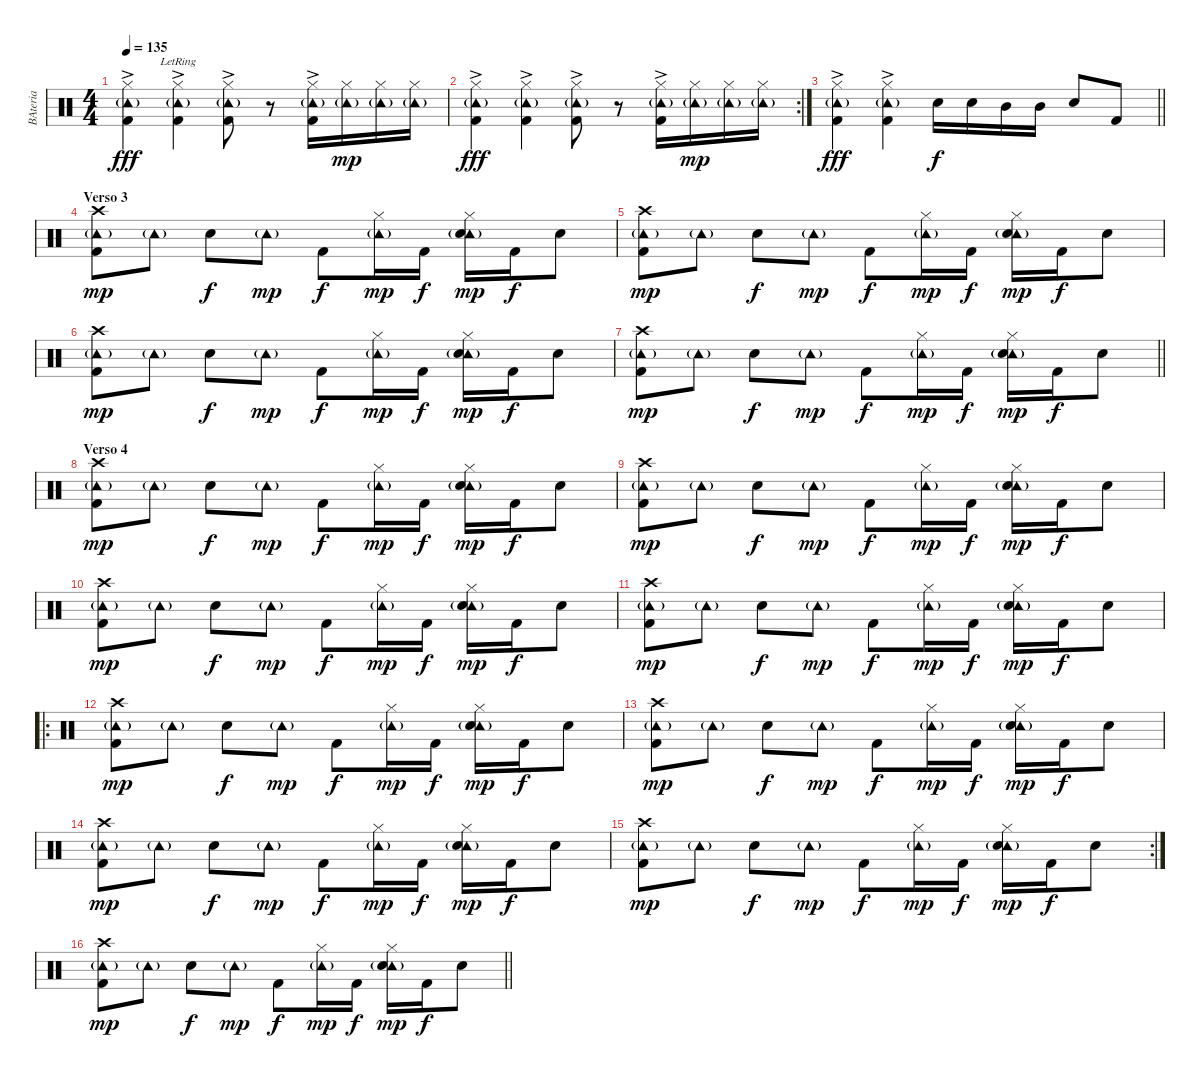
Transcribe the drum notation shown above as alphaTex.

\track ("BAteria" "BAteria") {instrument percussion}
\staff {score}
\articulation defaults
\ts (4 4)
\tempo 135
\clef neutral
\ks c
("Hi-Hat (closed)" "Tambourine (hit)"{g} "Kick (hit) 2"{ac}).4{dy fff} ("Hi-Hat (closed)" "Tambourine (hit)"{g lr} "Kick (hit) 2"{ac}).4 ("Hi-Hat (closed)" "Tambourine (hit)"{g} "Kick (hit) 2"{ac}).8 r.8 ("Hi-Hat (closed)" "Tambourine (hit)"{g} "Kick (hit) 2"{ac}).16 ("Hi-Hat (closed)" "Tambourine (hit)"{g}).16{dy mp} ("Hi-Hat (closed)" "Tambourine (hit)"{g}).16 ("Hi-Hat (closed)" "Tambourine (hit)"{g}).16 |
\rc 2
("Hi-Hat (closed)" "Tambourine (hit)"{g} "Kick (hit) 2"{ac}).4{dy fff} ("Hi-Hat (closed)" "Tambourine (hit)"{g} "Kick (hit) 2"{ac}).4 ("Hi-Hat (closed)" "Tambourine (hit)"{g} "Kick (hit) 2"{ac}).8 r.8 ("Hi-Hat (closed)" "Tambourine (hit)"{g} "Kick (hit) 2"{ac}).16 ("Hi-Hat (closed)" "Tambourine (hit)"{g}).16{dy mp} ("Hi-Hat (closed)" "Tambourine (hit)"{g}).16 ("Hi-Hat (closed)" "Tambourine (hit)"{g}).16 |
\barLineRight lightlight
("Hi-Hat (closed)" "Tambourine (hit)"{g} "Kick (hit) 2"{ac}).4{dy fff} ("Hi-Hat (closed)" "Tambourine (hit)"{g} "Kick (hit) 2"{ac}).4 "Electric Snare (hit)".16{dy f} "Electric Snare (hit)".16 "Mid Tom (hit)".16 "Mid Tom (hit)".16 "Electric Snare (hit)".8 "Kick (hit) 2".8 |
\section ("" "Verso 3")
("Crash high (hit)" "Tambourine (hit)"{g} "Kick (hit) 2").8{dy mp} "Tambourine (hit)"{g}.8 "Electric Snare (hit)".8{dy f} "Tambourine (hit)"{g}.8{dy mp} "Kick (hit) 2".8{dy f} ("Hi-Hat (closed)" "Tambourine (hit)"{g}).16{dy mp} "Kick (hit) 2".16{dy f} ("Hi-Hat (closed)" "Tambourine (hit)"{g} "Electric Snare (hit)").16{dy mp} "Kick (hit) 2".16{dy f} "Electric Snare (hit)".8 |
("Crash high (hit)" "Tambourine (hit)"{g} "Kick (hit) 2").8{dy mp} "Tambourine (hit)"{g}.8 "Electric Snare (hit)".8{dy f} "Tambourine (hit)"{g}.8{dy mp} "Kick (hit) 2".8{dy f} ("Hi-Hat (closed)" "Tambourine (hit)"{g}).16{dy mp} "Kick (hit) 2".16{dy f} ("Hi-Hat (closed)" "Tambourine (hit)"{g} "Electric Snare (hit)").16{dy mp} "Kick (hit) 2".16{dy f} "Electric Snare (hit)".8 |
("Crash high (hit)" "Tambourine (hit)"{g} "Kick (hit) 2").8{dy mp} "Tambourine (hit)"{g}.8 "Electric Snare (hit)".8{dy f} "Tambourine (hit)"{g}.8{dy mp} "Kick (hit) 2".8{dy f} ("Hi-Hat (closed)" "Tambourine (hit)"{g}).16{dy mp} "Kick (hit) 2".16{dy f} ("Hi-Hat (closed)" "Tambourine (hit)"{g} "Electric Snare (hit)").16{dy mp} "Kick (hit) 2".16{dy f} "Electric Snare (hit)".8 |
\barLineRight lightlight
("Crash high (hit)" "Tambourine (hit)"{g} "Kick (hit) 2").8{dy mp} "Tambourine (hit)"{g}.8 "Electric Snare (hit)".8{dy f} "Tambourine (hit)"{g}.8{dy mp} "Kick (hit) 2".8{dy f} ("Hi-Hat (closed)" "Tambourine (hit)"{g}).16{dy mp} "Kick (hit) 2".16{dy f} ("Hi-Hat (closed)" "Tambourine (hit)"{g} "Electric Snare (hit)").16{dy mp} "Kick (hit) 2".16{dy f} "Electric Snare (hit)".8 |
\section ("" "Verso 4")
("Crash high (hit)" "Tambourine (hit)"{g} "Kick (hit) 2").8{dy mp} "Tambourine (hit)"{g}.8 "Electric Snare (hit)".8{dy f} "Tambourine (hit)"{g}.8{dy mp} "Kick (hit) 2".8{dy f} ("Hi-Hat (closed)" "Tambourine (hit)"{g}).16{dy mp} "Kick (hit) 2".16{dy f} ("Hi-Hat (closed)" "Tambourine (hit)"{g} "Electric Snare (hit)").16{dy mp} "Kick (hit) 2".16{dy f} "Electric Snare (hit)".8 |
("Crash high (hit)" "Tambourine (hit)"{g} "Kick (hit) 2").8{dy mp} "Tambourine (hit)"{g}.8 "Electric Snare (hit)".8{dy f} "Tambourine (hit)"{g}.8{dy mp} "Kick (hit) 2".8{dy f} ("Hi-Hat (closed)" "Tambourine (hit)"{g}).16{dy mp} "Kick (hit) 2".16{dy f} ("Hi-Hat (closed)" "Tambourine (hit)"{g} "Electric Snare (hit)").16{dy mp} "Kick (hit) 2".16{dy f} "Electric Snare (hit)".8 |
("Crash high (hit)" "Tambourine (hit)"{g} "Kick (hit) 2").8{dy mp} "Tambourine (hit)"{g}.8 "Electric Snare (hit)".8{dy f} "Tambourine (hit)"{g}.8{dy mp} "Kick (hit) 2".8{dy f} ("Hi-Hat (closed)" "Tambourine (hit)"{g}).16{dy mp} "Kick (hit) 2".16{dy f} ("Hi-Hat (closed)" "Tambourine (hit)"{g} "Electric Snare (hit)").16{dy mp} "Kick (hit) 2".16{dy f} "Electric Snare (hit)".8 |
("Crash high (hit)" "Tambourine (hit)"{g} "Kick (hit) 2").8{dy mp} "Tambourine (hit)"{g}.8 "Electric Snare (hit)".8{dy f} "Tambourine (hit)"{g}.8{dy mp} "Kick (hit) 2".8{dy f} ("Hi-Hat (closed)" "Tambourine (hit)"{g}).16{dy mp} "Kick (hit) 2".16{dy f} ("Hi-Hat (closed)" "Tambourine (hit)"{g} "Electric Snare (hit)").16{dy mp} "Kick (hit) 2".16{dy f} "Electric Snare (hit)".8 |
\ro
("Crash high (hit)" "Tambourine (hit)"{g} "Kick (hit) 2").8{dy mp} "Tambourine (hit)"{g}.8 "Electric Snare (hit)".8{dy f} "Tambourine (hit)"{g}.8{dy mp} "Kick (hit) 2".8{dy f} ("Hi-Hat (closed)" "Tambourine (hit)"{g}).16{dy mp} "Kick (hit) 2".16{dy f} ("Hi-Hat (closed)" "Tambourine (hit)"{g} "Electric Snare (hit)").16{dy mp} "Kick (hit) 2".16{dy f} "Electric Snare (hit)".8 |
("Crash high (hit)" "Tambourine (hit)"{g} "Kick (hit) 2").8{dy mp} "Tambourine (hit)"{g}.8 "Electric Snare (hit)".8{dy f} "Tambourine (hit)"{g}.8{dy mp} "Kick (hit) 2".8{dy f} ("Hi-Hat (closed)" "Tambourine (hit)"{g}).16{dy mp} "Kick (hit) 2".16{dy f} ("Hi-Hat (closed)" "Tambourine (hit)"{g} "Electric Snare (hit)").16{dy mp} "Kick (hit) 2".16{dy f} "Electric Snare (hit)".8 |
("Crash high (hit)" "Tambourine (hit)"{g} "Kick (hit) 2").8{dy mp} "Tambourine (hit)"{g}.8 "Electric Snare (hit)".8{dy f} "Tambourine (hit)"{g}.8{dy mp} "Kick (hit) 2".8{dy f} ("Hi-Hat (closed)" "Tambourine (hit)"{g}).16{dy mp} "Kick (hit) 2".16{dy f} ("Hi-Hat (closed)" "Tambourine (hit)"{g} "Electric Snare (hit)").16{dy mp} "Kick (hit) 2".16{dy f} "Electric Snare (hit)".8 |
\rc 2
("Crash high (hit)" "Tambourine (hit)"{g} "Kick (hit) 2").8{dy mp} "Tambourine (hit)"{g}.8 "Electric Snare (hit)".8{dy f} "Tambourine (hit)"{g}.8{dy mp} "Kick (hit) 2".8{dy f} ("Hi-Hat (closed)" "Tambourine (hit)"{g}).16{dy mp} "Kick (hit) 2".16{dy f} ("Hi-Hat (closed)" "Tambourine (hit)"{g} "Electric Snare (hit)").16{dy mp} "Kick (hit) 2".16{dy f} "Electric Snare (hit)".8 |
\barLineRight lightlight
("Crash high (hit)" "Tambourine (hit)"{g} "Kick (hit) 2").8{dy mp} "Tambourine (hit)"{g}.8 "Electric Snare (hit)".8{dy f} "Tambourine (hit)"{g}.8{dy mp} "Kick (hit) 2".8{dy f} ("Hi-Hat (closed)" "Tambourine (hit)"{g}).16{dy mp} "Kick (hit) 2".16{dy f} ("Hi-Hat (closed)" "Tambourine (hit)"{g} "Electric Snare (hit)").16{dy mp} "Kick (hit) 2".16{dy f} "Electric Snare (hit)".8
